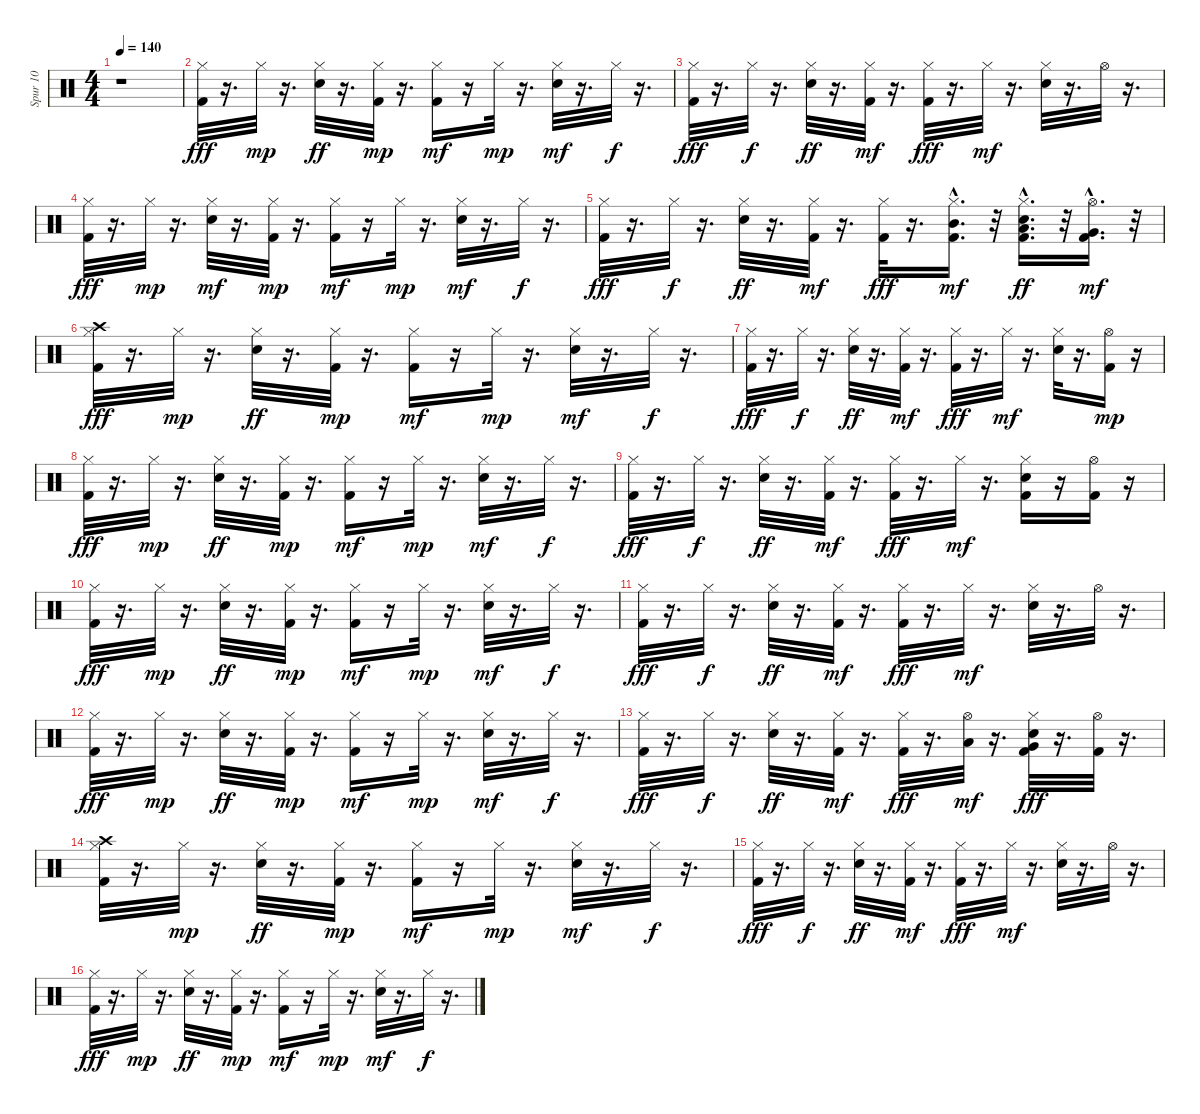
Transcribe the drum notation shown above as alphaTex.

\track ("Spur 10" "Spur 10") {instrument percussion}
\staff {score}
\articulation defaults
\ts (4 4)
\tempo 140
\clef neutral
\ks c
r.1{dy fff} |
("Hi-Hat (closed)" "Kick (hit) 2").32{volume 14 balance 8} r.16{d} "Hi-Hat (closed)".32{dy mp} r.16{d} ("Hi-Hat (closed)" "Snare (hit) 2").32{dy ff} r.16{d} ("Kick (hit) 2" "Hi-Hat (closed)").32{dy mp} r.16{d} ("Kick (hit) 2" "Hi-Hat (closed)").16{dy mf} r.16 "Hi-Hat (closed)".32{dy mp} r.16{d} ("Snare (hit) 2" "Hi-Hat (closed)").32{dy mf} r.16{d} "Hi-Hat (closed)".32{dy f} r.16{d} |
("Hi-Hat (closed)" "Kick (hit) 2").32{dy fff} r.16{d} "Hi-Hat (closed)".32{dy f} r.16{d} ("Hi-Hat (closed)" "Snare (hit) 2").32{dy ff} r.16{d} ("Kick (hit) 2" "Hi-Hat (closed)").32{dy mf} r.16{d} ("Hi-Hat (closed)" "Kick (hit) 2").32{dy fff} r.16{d} "Hi-Hat (closed)".32{dy mf} r.16{d} ("Snare (hit) 2" "Hi-Hat (closed)").32 r.16{d} "Hi-Hat (open)".32 r.16{d} |
("Hi-Hat (closed)" "Kick (hit) 2").32{dy fff} r.16{d} "Hi-Hat (closed)".32{dy mp} r.16{d} ("Snare (hit) 2" "Hi-Hat (closed)").32{dy mf} r.16{d} ("Kick (hit) 2" "Hi-Hat (closed)").32{dy mp} r.16{d} ("Kick (hit) 2" "Hi-Hat (closed)").16{dy mf} r.16 "Hi-Hat (closed)".32{dy mp} r.16{d} ("Hi-Hat (closed)" "Snare (hit) 2").32{dy mf} r.16{d} "Hi-Hat (closed)".32{dy f} r.16{d} |
("Hi-Hat (closed)" "Kick (hit) 2").32{dy fff} r.16{d} "Hi-Hat (closed)".32{dy f} r.16{d} ("Hi-Hat (closed)" "Snare (hit) 2").32{dy ff} r.16{d} ("Kick (hit) 2" "Hi-Hat (closed)").32{dy mf} r.16{d} ("Hi-Hat (closed)" "Kick (hit) 2").32{dy fff} r.16{d} ("Mid Tom (hit)" "Kick (hit) 2"{hac} "Hi-Hat (closed)").16{d dy mf} r.32 ("Low Tom (hit)" "Hi-Hat (closed)" "Snare (hit) 2" "Kick (hit) 2"{hac}).16{d dy ff} r.32 ("Very Low Tom (hit)" "Kick (hit) 2"{hac} "Hi-Hat (open)").16{d dy mf} r.32 |
("Crash high (hit)" "Hi-Hat (closed)" "Kick (hit) 2").32{dy fff} r.16{d} "Hi-Hat (closed)".32{dy mp} r.16{d} ("Hi-Hat (closed)" "Snare (hit) 2").32{dy ff} r.16{d} ("Kick (hit) 2" "Hi-Hat (closed)").32{dy mp} r.16{d} ("Kick (hit) 2" "Hi-Hat (closed)").16{dy mf} r.16 "Hi-Hat (closed)".32{dy mp} r.16{d} ("Snare (hit) 2" "Hi-Hat (closed)").32{dy mf} r.16{d} "Hi-Hat (closed)".32{dy f} r.16{d} |
("Hi-Hat (closed)" "Kick (hit) 2").32{dy fff} r.16{d} "Hi-Hat (closed)".32{dy f} r.16{d} ("Hi-Hat (closed)" "Snare (hit) 2").32{dy ff} r.16{d} ("Kick (hit) 2" "Hi-Hat (closed)").32{dy mf} r.16{d} ("Hi-Hat (closed)" "Kick (hit) 2").32{dy fff} r.16{d} "Hi-Hat (closed)".32{dy mf} r.16{d} ("Snare (hit) 2" "Hi-Hat (closed)").32 r.16{d} ("Hi-Hat (open)" "Kick (hit) 2").16{dy mp} r.16 |
("Hi-Hat (closed)" "Kick (hit) 2").32{dy fff} r.16{d} "Hi-Hat (closed)".32{dy mp} r.16{d} ("Hi-Hat (closed)" "Snare (hit) 2").32{dy ff} r.16{d} ("Kick (hit) 2" "Hi-Hat (closed)").32{dy mp} r.16{d} ("Kick (hit) 2" "Hi-Hat (closed)").16{dy mf} r.16 "Hi-Hat (closed)".32{dy mp} r.16{d} ("Snare (hit) 2" "Hi-Hat (closed)").32{dy mf} r.16{d} "Hi-Hat (closed)".32{dy f} r.16{d} |
("Hi-Hat (closed)" "Kick (hit) 2").32{dy fff} r.16{d} "Hi-Hat (closed)".32{dy f} r.16{d} ("Hi-Hat (closed)" "Snare (hit) 2").32{dy ff} r.16{d} ("Kick (hit) 2" "Hi-Hat (closed)").32{dy mf} r.16{d} ("Hi-Hat (closed)" "Kick (hit) 2").32{dy fff} r.16{d} "Hi-Hat (closed)".32{dy mf} r.16{d} ("Kick (hit) 2" "Snare (hit) 2" "Hi-Hat (closed)").16 r.16 ("Kick (hit) 2" "Hi-Hat (open)").16 r.16 |
("Hi-Hat (closed)" "Kick (hit) 2").32{dy fff} r.16{d} "Hi-Hat (closed)".32{dy mp} r.16{d} ("Hi-Hat (closed)" "Snare (hit) 2").32{dy ff} r.16{d} ("Kick (hit) 2" "Hi-Hat (closed)").32{dy mp} r.16{d} ("Kick (hit) 2" "Hi-Hat (closed)").16{dy mf} r.16 "Hi-Hat (closed)".32{dy mp} r.16{d} ("Snare (hit) 2" "Hi-Hat (closed)").32{dy mf} r.16{d} "Hi-Hat (closed)".32{dy f} r.16{d} |
("Hi-Hat (closed)" "Kick (hit) 2").32{dy fff} r.16{d} "Hi-Hat (closed)".32{dy f} r.16{d} ("Hi-Hat (closed)" "Snare (hit) 2").32{dy ff} r.16{d} ("Kick (hit) 2" "Hi-Hat (closed)").32{dy mf} r.16{d} ("Hi-Hat (closed)" "Kick (hit) 2").32{dy fff} r.16{d} "Hi-Hat (closed)".32{dy mf} r.16{d} ("Snare (hit) 2" "Hi-Hat (closed)").32 r.16{d} "Hi-Hat (open)".32 r.16{d} |
("Hi-Hat (closed)" "Kick (hit) 2").32{dy fff} r.16{d} "Hi-Hat (closed)".32{dy mp} r.16{d} ("Hi-Hat (closed)" "Snare (hit) 2").32{dy ff} r.16{d} ("Kick (hit) 2" "Hi-Hat (closed)").32{dy mp} r.16{d} ("Kick (hit) 2" "Hi-Hat (closed)").16{dy mf} r.16 "Hi-Hat (closed)".32{dy mp} r.16{d} ("Snare (hit) 2" "Hi-Hat (closed)").32{dy mf} r.16{d} "Hi-Hat (closed)".32{dy f} r.16{d} |
("Hi-Hat (closed)" "Kick (hit) 2").32{dy fff} r.16{d} "Hi-Hat (closed)".32{dy f} r.16{d} ("Hi-Hat (closed)" "Snare (hit) 2").32{dy ff} r.16{d} ("Kick (hit) 2" "Hi-Hat (closed)").32{dy mf} r.16{d} ("Hi-Hat (closed)" "Kick (hit) 2").32{dy fff} r.16{d} ("Low Tom (hit)" "Hi-Hat (open)").32{dy mf} r.16{d} ("Very Low Tom (hit)" "Snare (hit) 2" "Hi-Hat (closed)" "Kick (hit) 2").32{dy fff} r.16{d} ("Hi-Hat (open)" "Kick (hit) 2").32 r.16{d} |
("Crash high (hit)" "Hi-Hat (closed)" "Kick (hit) 2").32 r.16{d} "Hi-Hat (closed)".32{dy mp} r.16{d} ("Hi-Hat (closed)" "Snare (hit) 2").32{dy ff} r.16{d} ("Kick (hit) 2" "Hi-Hat (closed)").32{dy mp} r.16{d} ("Kick (hit) 2" "Hi-Hat (closed)").16{dy mf} r.16 "Hi-Hat (closed)".32{dy mp} r.16{d} ("Snare (hit) 2" "Hi-Hat (closed)").32{dy mf} r.16{d} "Hi-Hat (closed)".32{dy f} r.16{d} |
("Hi-Hat (closed)" "Kick (hit) 2").32{dy fff} r.16{d} "Hi-Hat (closed)".32{dy f} r.16{d} ("Hi-Hat (closed)" "Snare (hit) 2").32{dy ff} r.16{d} ("Kick (hit) 2" "Hi-Hat (closed)").32{dy mf} r.16{d} ("Hi-Hat (closed)" "Kick (hit) 2").32{dy fff} r.16{d} "Hi-Hat (closed)".32{dy mf} r.16{d} ("Snare (hit) 2" "Hi-Hat (closed)").32 r.16{d} "Hi-Hat (open)".32 r.16{d} |
("Hi-Hat (closed)" "Kick (hit) 2").32{dy fff} r.16{d} "Hi-Hat (closed)".32{dy mp} r.16{d} ("Hi-Hat (closed)" "Snare (hit) 2").32{dy ff} r.16{d} ("Kick (hit) 2" "Hi-Hat (closed)").32{dy mp} r.16{d} ("Kick (hit) 2" "Hi-Hat (closed)").16{dy mf} r.16 "Hi-Hat (closed)".32{dy mp} r.16{d} ("Snare (hit) 2" "Hi-Hat (closed)").32{dy mf} r.16{d} "Hi-Hat (closed)".32{dy f} r.16{d}
